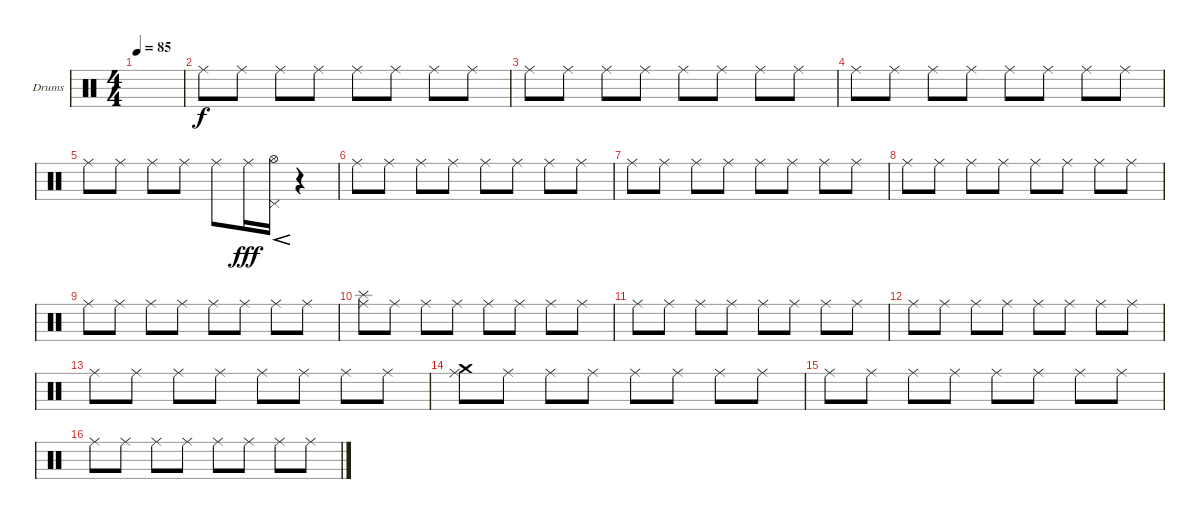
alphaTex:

\defaultSystemsLayout 4
\bracketExtendMode groupsimilarinstruments
\firstSystemTrackNameOrientation horizontal
\otherSystemsTrackNameOrientation horizontal
\track ("Ride ppp" "Drums") {instrument percussion}
\staff {score}
\articulation defaults
\ts (4 4)
\ac
\tempo 85
\clef neutral
\ks c
|
"Ride (middle)".8 "Ride (middle)".8 "Ride (middle)".8 "Ride (middle)".8 "Ride (middle)".8 "Ride (middle)".8 "Ride (middle)".8 "Ride (middle)".8 |
"Ride (middle)".8 "Ride (middle)".8 "Ride (middle)".8 "Ride (middle)".8 "Ride (middle)".8 "Ride (middle)".8 "Ride (middle)".8 "Ride (middle)".8 |
"Ride (middle)".8 "Ride (middle)".8 "Ride (middle)".8 "Ride (middle)".8 "Ride (middle)".8 "Ride (middle)".8 "Ride (middle)".8 "Ride (middle)".8 |
"Ride (middle)".8 "Ride (middle)".8 "Ride (middle)".8 "Ride (middle)".8 "Ride (middle)".8 "Ride (middle)".16{dy fff} ("Hi-Hat (open)" "Pedal Hi-Hat (hit)").16{cre} r.4 |
"Ride (middle)".8 "Ride (middle)".8 "Ride (middle)".8 "Ride (middle)".8 "Ride (middle)".8 "Ride (middle)".8 "Ride (middle)".8 "Ride (middle)".8 |
"Ride (middle)".8 "Ride (middle)".8 "Ride (middle)".8 "Ride (middle)".8 "Ride (middle)".8 "Ride (middle)".8 "Ride (middle)".8 "Ride (middle)".8 |
"Ride (middle)".8 "Ride (middle)".8 "Ride (middle)".8 "Ride (middle)".8 "Ride (middle)".8 "Ride (middle)".8 "Ride (middle)".8 "Ride (middle)".8 |
"Ride (middle)".8 "Ride (middle)".8 "Ride (middle)".8 "Ride (middle)".8 "Ride (middle)".8 "Ride (middle)".8 "Ride (middle)".8 "Ride (middle)".8 |
("Ride (middle)" "Splash (hit)").8 "Ride (middle)".8 "Ride (middle)".8 "Ride (middle)".8 "Ride (middle)".8 "Ride (middle)".8 "Ride (middle)".8 "Ride (middle)".8 |
"Ride (middle)".8 "Ride (middle)".8 "Ride (middle)".8 "Ride (middle)".8 "Ride (middle)".8 "Ride (middle)".8 "Ride (middle)".8 "Ride (middle)".8 |
"Ride (middle)".8 "Ride (middle)".8 "Ride (middle)".8 "Ride (middle)".8 "Ride (middle)".8 "Ride (middle)".8 "Ride (middle)".8 "Ride (middle)".8 |
"Ride (middle)".8 "Ride (middle)".8 "Ride (middle)".8 "Ride (middle)".8 "Ride (middle)".8 "Ride (middle)".8 "Ride (middle)".8 "Ride (middle)".8 |
("Ride (middle)" "Crash medium (hit)").8 "Ride (middle)".8 "Ride (middle)".8 "Ride (middle)".8 "Ride (middle)".8 "Ride (middle)".8 "Ride (middle)".8 "Ride (middle)".8 |
"Ride (middle)".8 "Ride (middle)".8 "Ride (middle)".8 "Ride (middle)".8 "Ride (middle)".8 "Ride (middle)".8 "Ride (middle)".8 "Ride (middle)".8 |
"Ride (middle)".8 "Ride (middle)".8 "Ride (middle)".8 "Ride (middle)".8 "Ride (middle)".8 "Ride (middle)".8 "Ride (middle)".8 "Ride (middle)".8
